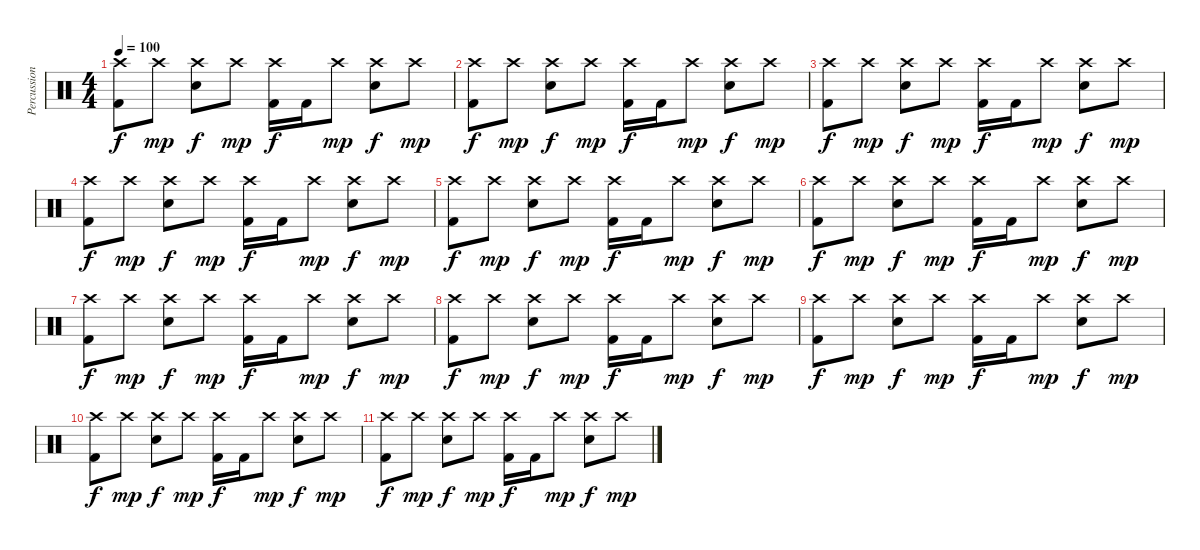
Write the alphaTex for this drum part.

\track ("Percussion" "Percussion") {instrument percussion}
\staff {score}
\articulation defaults
\ts (4 4)
\tempo 100
\clef neutral
\ks c
("Crash high (hit)" "Kick (hit) 2").8{dy f} "Crash high (hit)".8{dy mp} ("Crash high (hit)" "Electric Snare (hit)").8{dy f} "Crash high (hit)".8{dy mp} ("Crash high (hit)" "Kick (hit) 2").16{dy f} "Kick (hit) 2".16 "Crash high (hit)".8{dy mp} ("Crash high (hit)" "Electric Snare (hit)").8{dy f} "Crash high (hit)".8{dy mp} |
("Crash high (hit)" "Kick (hit) 2").8{dy f} "Crash high (hit)".8{dy mp} ("Crash high (hit)" "Electric Snare (hit)").8{dy f} "Crash high (hit)".8{dy mp} ("Crash high (hit)" "Kick (hit) 2").16{dy f} "Kick (hit) 2".16 "Crash high (hit)".8{dy mp} ("Crash high (hit)" "Electric Snare (hit)").8{dy f} "Crash high (hit)".8{dy mp} |
("Crash high (hit)" "Kick (hit) 2").8{dy f} "Crash high (hit)".8{dy mp} ("Crash high (hit)" "Electric Snare (hit)").8{dy f} "Crash high (hit)".8{dy mp} ("Crash high (hit)" "Kick (hit) 2").16{dy f} "Kick (hit) 2".16 "Crash high (hit)".8{dy mp} ("Crash high (hit)" "Electric Snare (hit)").8{dy f} "Crash high (hit)".8{dy mp} |
("Crash high (hit)" "Kick (hit) 2").8{dy f} "Crash high (hit)".8{dy mp} ("Crash high (hit)" "Electric Snare (hit)").8{dy f} "Crash high (hit)".8{dy mp} ("Crash high (hit)" "Kick (hit) 2").16{dy f} "Kick (hit) 2".16 "Crash high (hit)".8{dy mp} ("Crash high (hit)" "Electric Snare (hit)").8{dy f} "Crash high (hit)".8{dy mp} |
("Crash high (hit)" "Kick (hit) 2").8{dy f} "Crash high (hit)".8{dy mp} ("Crash high (hit)" "Electric Snare (hit)").8{dy f} "Crash high (hit)".8{dy mp} ("Crash high (hit)" "Kick (hit) 2").16{dy f} "Kick (hit) 2".16 "Crash high (hit)".8{dy mp} ("Crash high (hit)" "Electric Snare (hit)").8{dy f} "Crash high (hit)".8{dy mp} |
("Crash high (hit)" "Kick (hit) 2").8{dy f} "Crash high (hit)".8{dy mp} ("Crash high (hit)" "Electric Snare (hit)").8{dy f} "Crash high (hit)".8{dy mp} ("Crash high (hit)" "Kick (hit) 2").16{dy f} "Kick (hit) 2".16 "Crash high (hit)".8{dy mp} ("Crash high (hit)" "Electric Snare (hit)").8{dy f} "Crash high (hit)".8{dy mp} |
("Crash high (hit)" "Kick (hit) 2").8{dy f} "Crash high (hit)".8{dy mp} ("Crash high (hit)" "Electric Snare (hit)").8{dy f} "Crash high (hit)".8{dy mp} ("Crash high (hit)" "Kick (hit) 2").16{dy f} "Kick (hit) 2".16 "Crash high (hit)".8{dy mp} ("Crash high (hit)" "Electric Snare (hit)").8{dy f} "Crash high (hit)".8{dy mp} |
("Crash high (hit)" "Kick (hit) 2").8{dy f} "Crash high (hit)".8{dy mp} ("Crash high (hit)" "Electric Snare (hit)").8{dy f} "Crash high (hit)".8{dy mp} ("Crash high (hit)" "Kick (hit) 2").16{dy f} "Kick (hit) 2".16 "Crash high (hit)".8{dy mp} ("Crash high (hit)" "Electric Snare (hit)").8{dy f} "Crash high (hit)".8{dy mp} |
("Crash high (hit)" "Kick (hit) 2").8{dy f} "Crash high (hit)".8{dy mp} ("Crash high (hit)" "Electric Snare (hit)").8{dy f} "Crash high (hit)".8{dy mp} ("Crash high (hit)" "Kick (hit) 2").16{dy f} "Kick (hit) 2".16 "Crash high (hit)".8{dy mp} ("Crash high (hit)" "Electric Snare (hit)").8{dy f} "Crash high (hit)".8{dy mp} |
("Crash high (hit)" "Kick (hit) 2").8{dy f} "Crash high (hit)".8{dy mp} ("Crash high (hit)" "Electric Snare (hit)").8{dy f} "Crash high (hit)".8{dy mp} ("Crash high (hit)" "Kick (hit) 2").16{dy f} "Kick (hit) 2".16 "Crash high (hit)".8{dy mp} ("Crash high (hit)" "Electric Snare (hit)").8{dy f} "Crash high (hit)".8{dy mp} |
("Crash high (hit)" "Kick (hit) 2").8{dy f} "Crash high (hit)".8{dy mp} ("Crash high (hit)" "Electric Snare (hit)").8{dy f} "Crash high (hit)".8{dy mp} ("Crash high (hit)" "Kick (hit) 2").16{dy f} "Kick (hit) 2".16 "Crash high (hit)".8{dy mp} ("Crash high (hit)" "Electric Snare (hit)").8{dy f} "Crash high (hit)".8{dy mp}
